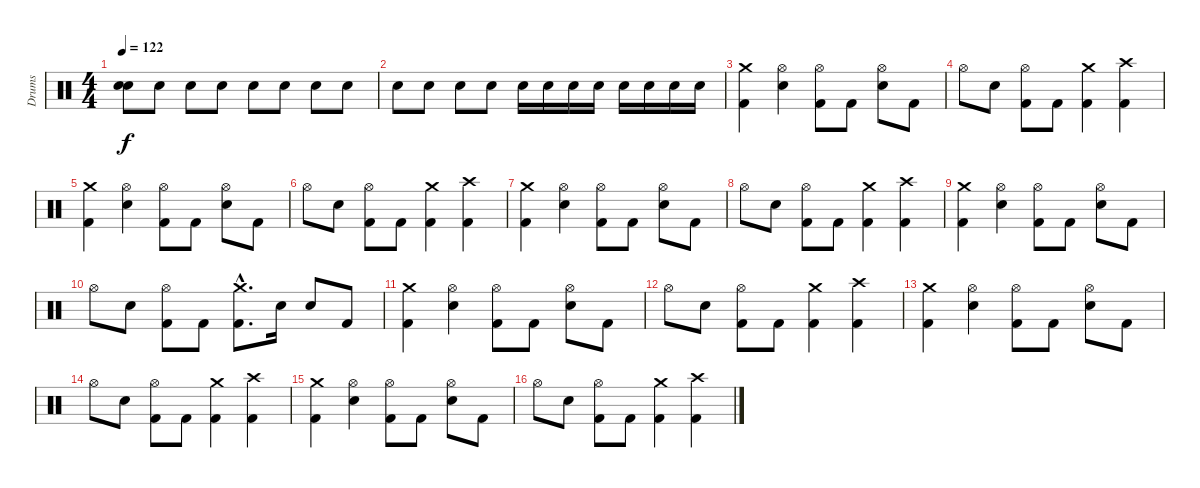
\track ("Drums" "Drums") {instrument percussion}
\staff {score}
\articulation defaults
\ts (4 4)
\tempo 122
\clef neutral
\ks c
("Snare (hit)"{t} "Snare (hit)"{t}).8{dy f} "Electric Snare (hit)".8{volume 8} "Electric Snare (hit)".8{volume 9} "Electric Snare (hit)".8{volume 10} "Electric Snare (hit)".8{volume 11} "Electric Snare (hit)".8{volume 13} "Electric Snare (hit)".8{volume 14} "Electric Snare (hit)".8{volume 15} |
"Electric Snare (hit)".8 "Electric Snare (hit)".8 "Electric Snare (hit)".8 "Electric Snare (hit)".8 "Electric Snare (hit)".16 "Electric Snare (hit)".16 "Electric Snare (hit)".16 "Electric Snare (hit)".16 "Electric Snare (hit)".16 "Electric Snare (hit)".16 "Electric Snare (hit)".16 "Electric Snare (hit)".16 |
("Crash medium (hit)" "Kick (hit) 2").4 ("Hi-Hat (open)" "Electric Snare (hit)").4 ("Hi-Hat (open)" "Kick (hit) 2").8 "Kick (hit) 2".8 ("Hi-Hat (open)" "Electric Snare (hit)").8 "Kick (hit) 2".8 |
"Hi-Hat (open)".8 "Electric Snare (hit)".8 ("Hi-Hat (open)" "Kick (hit) 2").8 "Kick (hit) 2".8 ("Crash medium (hit)" "Kick (hit) 2").4 ("Crash high (hit)" "Kick (hit) 2").4 |
("Crash medium (hit)" "Kick (hit) 2").4 ("Hi-Hat (open)" "Electric Snare (hit)").4 ("Hi-Hat (open)" "Kick (hit) 2").8 "Kick (hit) 2".8 ("Hi-Hat (open)" "Electric Snare (hit)").8 "Kick (hit) 2".8 |
"Hi-Hat (open)".8 "Electric Snare (hit)".8 ("Hi-Hat (open)" "Kick (hit) 2").8 "Kick (hit) 2".8 ("Crash medium (hit)" "Kick (hit) 2").4 ("Crash high (hit)" "Kick (hit) 2").4 |
("Crash medium (hit)" "Kick (hit) 2").4 ("Hi-Hat (open)" "Electric Snare (hit)").4 ("Hi-Hat (open)" "Kick (hit) 2").8 "Kick (hit) 2".8 ("Hi-Hat (open)" "Electric Snare (hit)").8 "Kick (hit) 2".8 |
"Hi-Hat (open)".8 "Electric Snare (hit)".8 ("Hi-Hat (open)" "Kick (hit) 2").8 "Kick (hit) 2".8 ("Crash medium (hit)" "Kick (hit) 2").4 ("Crash high (hit)" "Kick (hit) 2").4 |
("Crash medium (hit)" "Kick (hit) 2").4 ("Hi-Hat (open)" "Electric Snare (hit)").4 ("Hi-Hat (open)" "Kick (hit) 2").8 "Kick (hit) 2".8 ("Hi-Hat (open)" "Electric Snare (hit)").8 "Kick (hit) 2".8 |
"Hi-Hat (open)".8 "Electric Snare (hit)".8 ("Hi-Hat (open)" "Kick (hit) 2").8 "Kick (hit) 2".8 ("Crash medium (hit)"{hac} "Kick (hit) 2"{hac}).8{d} "Electric Snare (hit)".16 "Electric Snare (hit)".8 "Kick (hit) 2".8 |
("Crash medium (hit)" "Kick (hit) 2").4 ("Hi-Hat (open)" "Electric Snare (hit)").4 ("Hi-Hat (open)" "Kick (hit) 2").8 "Kick (hit) 2".8 ("Hi-Hat (open)" "Electric Snare (hit)").8 "Kick (hit) 2".8 |
"Hi-Hat (open)".8 "Electric Snare (hit)".8 ("Hi-Hat (open)" "Kick (hit) 2").8 "Kick (hit) 2".8 ("Crash medium (hit)" "Kick (hit) 2").4 ("Crash high (hit)" "Kick (hit) 2").4 |
("Crash medium (hit)" "Kick (hit) 2").4 ("Hi-Hat (open)" "Electric Snare (hit)").4 ("Hi-Hat (open)" "Kick (hit) 2").8 "Kick (hit) 2".8 ("Hi-Hat (open)" "Electric Snare (hit)").8 "Kick (hit) 2".8 |
"Hi-Hat (open)".8 "Electric Snare (hit)".8 ("Hi-Hat (open)" "Kick (hit) 2").8 "Kick (hit) 2".8 ("Crash medium (hit)" "Kick (hit) 2").4 ("Crash high (hit)" "Kick (hit) 2").4 |
("Crash medium (hit)" "Kick (hit) 2").4 ("Hi-Hat (open)" "Electric Snare (hit)").4 ("Hi-Hat (open)" "Kick (hit) 2").8 "Kick (hit) 2".8 ("Hi-Hat (open)" "Electric Snare (hit)").8 "Kick (hit) 2".8 |
"Hi-Hat (open)".8 "Electric Snare (hit)".8 ("Hi-Hat (open)" "Kick (hit) 2").8 "Kick (hit) 2".8 ("Crash medium (hit)" "Kick (hit) 2").4 ("Crash high (hit)" "Kick (hit) 2").4
